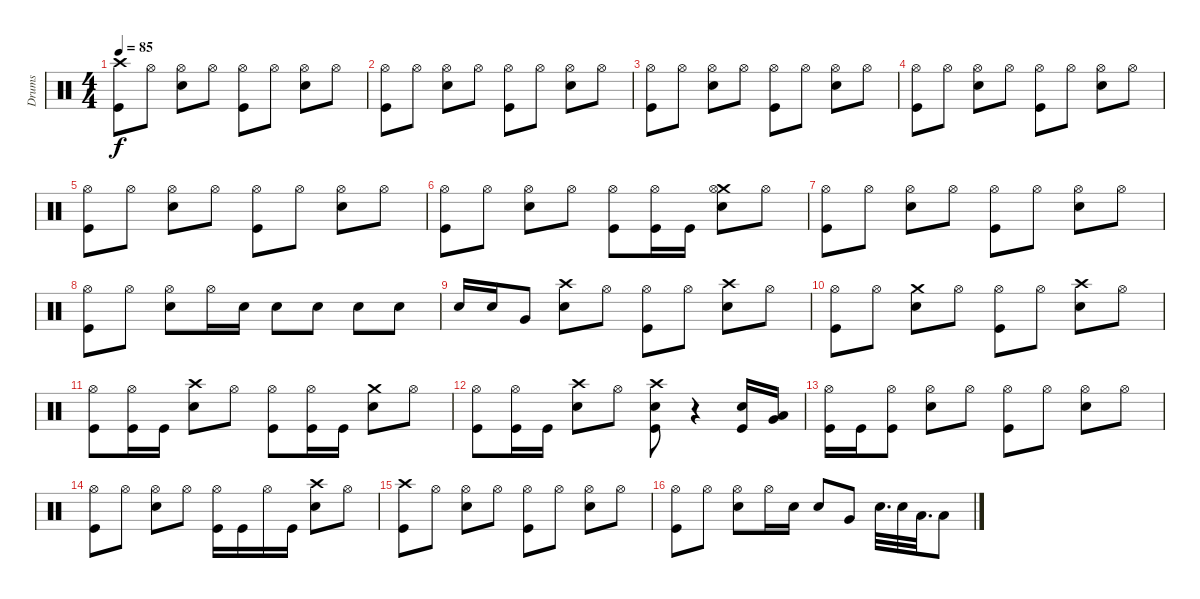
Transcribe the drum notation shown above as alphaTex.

\track ("Drums" "Drums") {instrument percussion}
\staff {score}
\articulation defaults
\ts (4 4)
\tempo 85
\clef neutral
\ks c
("Crash high (hit)" "Kick (hit)").8{dy f} "Hi-Hat (open)".8 ("Snare (hit) 2" "Hi-Hat (open)").8 "Hi-Hat (open)".8 ("Kick (hit)" "Hi-Hat (open)").8 "Hi-Hat (open)".8 ("Snare (hit) 2" "Hi-Hat (open)").8 "Hi-Hat (open)".8 |
("Kick (hit)" "Hi-Hat (open)").8 "Hi-Hat (open)".8 ("Snare (hit) 2" "Hi-Hat (open)").8 "Hi-Hat (open)".8 ("Kick (hit)" "Hi-Hat (open)").8 "Hi-Hat (open)".8 ("Snare (hit) 2" "Hi-Hat (open)").8 "Hi-Hat (open)".8 |
("Kick (hit)" "Hi-Hat (open)").8 "Hi-Hat (open)".8 ("Hi-Hat (open)" "Snare (hit) 2").8 "Hi-Hat (open)".8 ("Hi-Hat (open)" "Kick (hit)").8 "Hi-Hat (open)".8 ("Snare (hit) 2" "Hi-Hat (open)").8 "Hi-Hat (open)".8 |
("Kick (hit)" "Hi-Hat (open)").8 "Hi-Hat (open)".8 ("Snare (hit) 2" "Hi-Hat (open)").8 "Hi-Hat (open)".8 ("Kick (hit)" "Hi-Hat (open)").8 "Hi-Hat (open)".8 ("Snare (hit) 2" "Hi-Hat (open)").8 "Hi-Hat (open)".8 |
("Kick (hit)" "Hi-Hat (open)").8 "Hi-Hat (open)".8 ("Snare (hit) 2" "Hi-Hat (open)").8 "Hi-Hat (open)".8 ("Kick (hit)" "Hi-Hat (open)").8 "Hi-Hat (open)".8 ("Snare (hit) 2" "Hi-Hat (open)").8 "Hi-Hat (open)".8 |
("Kick (hit)" "Hi-Hat (open)").8 "Hi-Hat (open)".8 ("Snare (hit) 2" "Hi-Hat (open)").8 "Hi-Hat (open)".8 ("Kick (hit)" "Hi-Hat (open)").8 ("Kick (hit)" "Hi-Hat (open)").16 "Kick (hit)".16 ("Crash medium (hit)" "Hi-Hat (open)" "Snare (hit) 2").8 "Hi-Hat (open)".8 |
("Kick (hit)" "Hi-Hat (open)").8 "Hi-Hat (open)".8 ("Snare (hit) 2" "Hi-Hat (open)").8 "Hi-Hat (open)".8 ("Kick (hit)" "Hi-Hat (open)").8 "Hi-Hat (open)".8 ("Snare (hit) 2" "Hi-Hat (open)").8 "Hi-Hat (open)".8 |
("Hi-Hat (open)" "Kick (hit)").8 "Hi-Hat (open)".8 ("Hi-Hat (open)" "Snare (hit) 2").8 "Hi-Hat (open)".16 "Snare (hit) 2".16 "Snare (hit) 2".8 "Snare (hit) 2".8 "Snare (hit) 2".8 "Snare (hit) 2".8 |
"Snare (hit) 2".16 "Snare (hit) 2".16 "Very Low Tom (hit)".8 ("Crash high (hit)" "Snare (hit) 2").8 "Hi-Hat (open)".8 ("Kick (hit)" "Hi-Hat (open)").8 "Hi-Hat (open)".8 ("Crash high (hit)" "Snare (hit) 2").8 "Hi-Hat (open)".8 |
("Kick (hit)" "Hi-Hat (open)").8 "Hi-Hat (open)".8 ("Snare (hit) 2" "Crash medium (hit)").8 "Hi-Hat (open)".8 ("Kick (hit)" "Hi-Hat (open)").8 "Hi-Hat (open)".8 ("Crash high (hit)" "Snare (hit) 2").8 "Hi-Hat (open)".8 |
("Kick (hit)" "Hi-Hat (open)").8 ("Hi-Hat (open)" "Kick (hit)").16 "Kick (hit)".16 ("Crash high (hit)" "Snare (hit) 2").8 "Hi-Hat (open)".8 ("Kick (hit)" "Hi-Hat (open)").8 ("Hi-Hat (open)" "Kick (hit)").16 "Kick (hit)".16 ("Snare (hit) 2" "Crash medium (hit)").8 "Hi-Hat (open)".8 |
("Kick (hit)" "Hi-Hat (open)").8 ("Hi-Hat (open)" "Kick (hit)").16 "Kick (hit)".16 ("Crash high (hit)" "Snare (hit) 2").8 "Hi-Hat (open)".8 ("Snare (hit) 2" "Crash high (hit)" "Kick (hit)").8 r.4 ("Kick (hit)" "Snare (hit) 2").16 ("Very Low Tom (hit)" "Low Tom (hit)").16 |
("Hi-Hat (open)" "Kick (hit)").16 "Kick (hit)".16 ("Kick (hit)" "Hi-Hat (open)").8 ("Snare (hit) 2" "Hi-Hat (open)").8 "Hi-Hat (open)".8 ("Hi-Hat (open)" "Kick (hit)").8 "Hi-Hat (open)".8 ("Hi-Hat (open)" "Snare (hit) 2").8 "Hi-Hat (open)".8 |
("Hi-Hat (open)" "Kick (hit)").8 "Hi-Hat (open)".8 ("Snare (hit) 2" "Hi-Hat (open)").8 "Hi-Hat (open)".8 ("Hi-Hat (open)" "Kick (hit)").16 "Kick (hit)".16 "Hi-Hat (open)".16 "Kick (hit)".16 ("Crash high (hit)" "Snare (hit) 2").8 "Hi-Hat (open)".8 |
("Kick (hit)" "Crash high (hit)").8 "Hi-Hat (open)".8 ("Snare (hit) 2" "Hi-Hat (open)").8 "Hi-Hat (open)".8 ("Kick (hit)" "Hi-Hat (open)").8 "Hi-Hat (open)".8 ("Snare (hit) 2" "Hi-Hat (open)").8 "Hi-Hat (open)".8 |
("Kick (hit)" "Hi-Hat (open)").8 "Hi-Hat (open)".8 ("Snare (hit) 2" "Hi-Hat (open)").8 "Hi-Hat (open)".16 "Snare (hit) 2".16 "Snare (hit) 2".8 "Very Low Tom (hit)".8 "Snare (hit) 2".32{d} "Snare (hit) 2".32 "Low Tom (hit)".32{d} "Low Floor Tom (hit)".8
